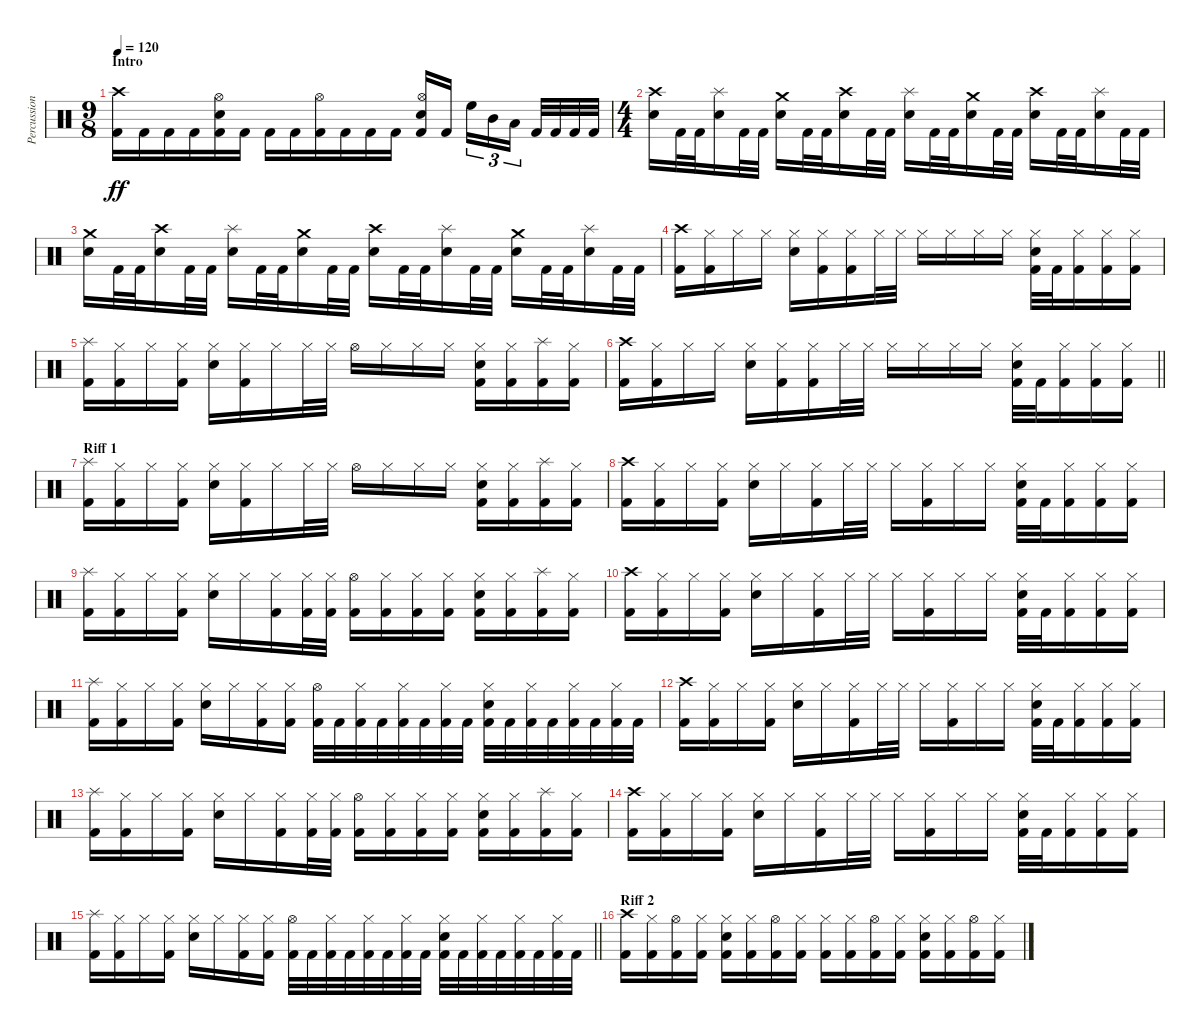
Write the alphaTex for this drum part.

\track ("Percussion" "Percussion") {instrument percussion}
\staff {score}
\articulation defaults
\ts (9 8)
\section ("" "Intro")
\tempo 120
\clef neutral
\ks c
("Crash high (hit)" "Kick (hit) 2").16{dy ff} "Kick (hit) 2".16 "Kick (hit) 2".16 "Kick (hit) 2".16 ("Hi-Hat (open)" "Electric Snare (hit)" "Kick (hit) 2").16 "Kick (hit) 2".16 "Kick (hit) 2".16 "Kick (hit) 2".16 ("Hi-Hat (open)" "Kick (hit) 2").16 "Kick (hit) 2".16 "Kick (hit) 2".16 "Kick (hit) 2".16 ("Hi-Hat (open)" "Electric Snare (hit)" "Kick (hit) 2").16 "Kick (hit) 2".16{beam splitsecondary} "High Floor Tom (hit)".16{tu (3 2)} "Mid Tom (hit)".16{tu (3 2)} "Low Floor Tom (hit)".16{tu (3 2) beam splitsecondary} "Kick (hit) 2".32 "Kick (hit) 2".32 "Kick (hit) 2".32 "Kick (hit) 2".32 |
\ts (4 4)
("Crash high (hit)" "Electric Snare (hit)").16 "Kick (hit) 2".32 "Kick (hit) 2".32 ("Splash (hit)" "Electric Snare (hit)").16 "Kick (hit) 2".32 "Kick (hit) 2".32 ("Crash medium (hit)" "Electric Snare (hit)").16 "Kick (hit) 2".32 "Kick (hit) 2".32 ("Crash high (hit)" "Electric Snare (hit)").16 "Kick (hit) 2".32 "Kick (hit) 2".32 ("Splash (hit)" "Electric Snare (hit)").16 "Kick (hit) 2".32 "Kick (hit) 2".32 ("Crash medium (hit)" "Electric Snare (hit)").16 "Kick (hit) 2".32 "Kick (hit) 2".32 ("Crash high (hit)" "Electric Snare (hit)").16 "Kick (hit) 2".32 "Kick (hit) 2".32 ("Splash (hit)" "Electric Snare (hit)").16 "Kick (hit) 2".32 "Kick (hit) 2".32 |
("Crash medium (hit)" "Electric Snare (hit)").16 "Kick (hit) 2".32 "Kick (hit) 2".32 ("Crash high (hit)" "Electric Snare (hit)").16 "Kick (hit) 2".32 "Kick (hit) 2".32 ("Splash (hit)" "Electric Snare (hit)").16 "Kick (hit) 2".32 "Kick (hit) 2".32 ("Crash medium (hit)" "Electric Snare (hit)").16 "Kick (hit) 2".32 "Kick (hit) 2".32 ("Crash high (hit)" "Electric Snare (hit)").16 "Kick (hit) 2".32 "Kick (hit) 2".32 ("Splash (hit)" "Electric Snare (hit)").16 "Kick (hit) 2".32 "Kick (hit) 2".32 ("Crash medium (hit)" "Electric Snare (hit)").16 "Kick (hit) 2".32 "Kick (hit) 2".32 ("Splash (hit)" "Electric Snare (hit)").16 "Kick (hit) 2".32 "Kick (hit) 2".32 |
("Crash high (hit)" "Kick (hit) 2").16 ("Hi-Hat (closed)" "Kick (hit) 2").16 "Hi-Hat (closed)".16 "Hi-Hat (closed)".16 ("Hi-Hat (closed)" "Electric Snare (hit)").16 ("Hi-Hat (closed)" "Kick (hit) 2").16 ("Hi-Hat (closed)" "Kick (hit) 2").16 "Hi-Hat (closed)".32 "Hi-Hat (closed)".32 "Hi-Hat (closed)".16 "Hi-Hat (closed)".16 "Hi-Hat (closed)".16 "Hi-Hat (closed)".16 ("Hi-Hat (closed)" "Electric Snare (hit)" "Kick (hit) 2").32 "Kick (hit) 2".32 ("Hi-Hat (closed)" "Kick (hit) 2").16 ("Hi-Hat (closed)" "Kick (hit) 2").16 ("Hi-Hat (closed)" "Kick (hit) 2").16 |
("Splash (hit)" "Kick (hit) 2").16 ("Hi-Hat (closed)" "Kick (hit) 2").16 "Hi-Hat (closed)".16 ("Hi-Hat (closed)" "Kick (hit) 2").16 ("Hi-Hat (closed)" "Electric Snare (hit)").16 ("Hi-Hat (closed)" "Kick (hit) 2").16 "Hi-Hat (closed)".16 "Hi-Hat (closed)".32 "Hi-Hat (closed)".32 "Hi-Hat (open)".16 "Hi-Hat (closed)".16 "Hi-Hat (closed)".16 "Hi-Hat (closed)".16 ("Hi-Hat (closed)" "Electric Snare (hit)" "Kick (hit) 2").16 ("Hi-Hat (closed)" "Kick (hit) 2").16 ("Splash (hit)" "Kick (hit) 2").16 ("Hi-Hat (closed)" "Kick (hit) 2").16 |
\barLineRight lightlight
("Crash high (hit)" "Kick (hit) 2").16 ("Hi-Hat (closed)" "Kick (hit) 2").16 "Hi-Hat (closed)".16 "Hi-Hat (closed)".16 ("Hi-Hat (closed)" "Electric Snare (hit)").16 ("Hi-Hat (closed)" "Kick (hit) 2").16 ("Hi-Hat (closed)" "Kick (hit) 2").16 "Hi-Hat (closed)".32 "Hi-Hat (closed)".32 "Hi-Hat (closed)".16 "Hi-Hat (closed)".16 "Hi-Hat (closed)".16 "Hi-Hat (closed)".16 ("Hi-Hat (closed)" "Electric Snare (hit)" "Kick (hit) 2").32 "Kick (hit) 2".32 ("Hi-Hat (closed)" "Kick (hit) 2").16 ("Hi-Hat (closed)" "Kick (hit) 2").16 ("Hi-Hat (closed)" "Kick (hit) 2").16 |
\section ("" "Riff 1")
("Splash (hit)" "Kick (hit) 2").16 ("Hi-Hat (closed)" "Kick (hit) 2").16 "Hi-Hat (closed)".16 ("Hi-Hat (closed)" "Kick (hit) 2").16 ("Hi-Hat (closed)" "Electric Snare (hit)").16 ("Hi-Hat (closed)" "Kick (hit) 2").16 "Hi-Hat (closed)".16 "Hi-Hat (closed)".32 "Hi-Hat (closed)".32 "Hi-Hat (open)".16 "Hi-Hat (closed)".16 "Hi-Hat (closed)".16 "Hi-Hat (closed)".16 ("Hi-Hat (closed)" "Electric Snare (hit)" "Kick (hit) 2").16 ("Hi-Hat (closed)" "Kick (hit) 2").16 ("Splash (hit)" "Kick (hit) 2").16 ("Hi-Hat (closed)" "Kick (hit) 2").16 |
("Crash high (hit)" "Kick (hit) 2").16 ("Hi-Hat (closed)" "Kick (hit) 2").16 "Hi-Hat (closed)".16 ("Hi-Hat (closed)" "Kick (hit) 2").16 ("Hi-Hat (closed)" "Electric Snare (hit)").16 "Hi-Hat (closed)".16 ("Hi-Hat (closed)" "Kick (hit) 2").16 "Hi-Hat (closed)".32 "Hi-Hat (closed)".32 "Hi-Hat (closed)".16 ("Hi-Hat (closed)" "Kick (hit) 2").16 "Hi-Hat (closed)".16 "Hi-Hat (closed)".16 ("Hi-Hat (closed)" "Electric Snare (hit)" "Kick (hit) 2").32 "Kick (hit) 2".32 ("Hi-Hat (closed)" "Kick (hit) 2").16 ("Hi-Hat (closed)" "Kick (hit) 2").16 ("Hi-Hat (closed)" "Kick (hit) 2").16 |
("Splash (hit)" "Kick (hit) 2").16 ("Hi-Hat (closed)" "Kick (hit) 2").16 "Hi-Hat (closed)".16 ("Hi-Hat (closed)" "Kick (hit) 2").16 ("Hi-Hat (closed)" "Electric Snare (hit)").16 "Hi-Hat (closed)".16 ("Hi-Hat (closed)" "Kick (hit) 2").16 ("Hi-Hat (closed)" "Kick (hit) 2").32 ("Hi-Hat (closed)" "Kick (hit) 2").32 ("Hi-Hat (open)" "Kick (hit) 2").16 ("Hi-Hat (closed)" "Kick (hit) 2").16 ("Hi-Hat (closed)" "Kick (hit) 2").16 ("Hi-Hat (closed)" "Kick (hit) 2").16 ("Hi-Hat (closed)" "Electric Snare (hit)" "Kick (hit) 2").16 ("Hi-Hat (closed)" "Kick (hit) 2").16 ("Splash (hit)" "Kick (hit) 2").16 ("Hi-Hat (closed)" "Kick (hit) 2").16 |
("Crash high (hit)" "Kick (hit) 2").16 ("Hi-Hat (closed)" "Kick (hit) 2").16 "Hi-Hat (closed)".16 ("Hi-Hat (closed)" "Kick (hit) 2").16 ("Hi-Hat (closed)" "Electric Snare (hit)").16 "Hi-Hat (closed)".16 ("Hi-Hat (closed)" "Kick (hit) 2").16 "Hi-Hat (closed)".32 "Hi-Hat (closed)".32 "Hi-Hat (closed)".16 ("Hi-Hat (closed)" "Kick (hit) 2").16 "Hi-Hat (closed)".16 "Hi-Hat (closed)".16 ("Hi-Hat (closed)" "Electric Snare (hit)" "Kick (hit) 2").32 "Kick (hit) 2".32 ("Hi-Hat (closed)" "Kick (hit) 2").16 ("Hi-Hat (closed)" "Kick (hit) 2").16 ("Hi-Hat (closed)" "Kick (hit) 2").16 |
("Splash (hit)" "Kick (hit) 2").16 ("Hi-Hat (closed)" "Kick (hit) 2").16 "Hi-Hat (closed)".16 ("Hi-Hat (closed)" "Kick (hit) 2").16 ("Hi-Hat (closed)" "Electric Snare (hit)").16 "Hi-Hat (closed)".16 ("Hi-Hat (closed)" "Kick (hit) 2").16 ("Hi-Hat (closed)" "Kick (hit) 2").16 ("Hi-Hat (open)" "Kick (hit) 2").32 "Kick (hit) 2".32 ("Hi-Hat (closed)" "Kick (hit) 2").32 "Kick (hit) 2".32 ("Hi-Hat (closed)" "Kick (hit) 2").32 "Kick (hit) 2".32 ("Hi-Hat (closed)" "Kick (hit) 2").32 "Kick (hit) 2".32 ("Hi-Hat (closed)" "Electric Snare (hit)" "Kick (hit) 2").32 "Kick (hit) 2".32 ("Hi-Hat (closed)" "Kick (hit) 2").32 "Kick (hit) 2".32 ("Hi-Hat (closed)" "Kick (hit) 2").32 "Kick (hit) 2".32 ("Hi-Hat (closed)" "Kick (hit) 2").32 "Kick (hit) 2".32 |
("Crash high (hit)" "Kick (hit) 2").16 ("Hi-Hat (closed)" "Kick (hit) 2").16 "Hi-Hat (closed)".16 ("Hi-Hat (closed)" "Kick (hit) 2").16 ("Hi-Hat (closed)" "Electric Snare (hit)").16 "Hi-Hat (closed)".16 ("Hi-Hat (closed)" "Kick (hit) 2").16 "Hi-Hat (closed)".32 "Hi-Hat (closed)".32 "Hi-Hat (closed)".16 ("Hi-Hat (closed)" "Kick (hit) 2").16 "Hi-Hat (closed)".16 "Hi-Hat (closed)".16 ("Hi-Hat (closed)" "Electric Snare (hit)" "Kick (hit) 2").32 "Kick (hit) 2".32 ("Hi-Hat (closed)" "Kick (hit) 2").16 ("Hi-Hat (closed)" "Kick (hit) 2").16 ("Hi-Hat (closed)" "Kick (hit) 2").16 |
("Splash (hit)" "Kick (hit) 2").16 ("Hi-Hat (closed)" "Kick (hit) 2").16 "Hi-Hat (closed)".16 ("Hi-Hat (closed)" "Kick (hit) 2").16 ("Hi-Hat (closed)" "Electric Snare (hit)").16 "Hi-Hat (closed)".16 ("Hi-Hat (closed)" "Kick (hit) 2").16 ("Hi-Hat (closed)" "Kick (hit) 2").32 ("Hi-Hat (closed)" "Kick (hit) 2").32 ("Hi-Hat (open)" "Kick (hit) 2").16 ("Hi-Hat (closed)" "Kick (hit) 2").16 ("Hi-Hat (closed)" "Kick (hit) 2").16 ("Hi-Hat (closed)" "Kick (hit) 2").16 ("Hi-Hat (closed)" "Electric Snare (hit)" "Kick (hit) 2").16 ("Hi-Hat (closed)" "Kick (hit) 2").16 ("Splash (hit)" "Kick (hit) 2").16 ("Hi-Hat (closed)" "Kick (hit) 2").16 |
("Crash high (hit)" "Kick (hit) 2").16 ("Hi-Hat (closed)" "Kick (hit) 2").16 "Hi-Hat (closed)".16 ("Hi-Hat (closed)" "Kick (hit) 2").16 ("Hi-Hat (closed)" "Electric Snare (hit)").16 "Hi-Hat (closed)".16 ("Hi-Hat (closed)" "Kick (hit) 2").16 "Hi-Hat (closed)".32 "Hi-Hat (closed)".32 "Hi-Hat (closed)".16 ("Hi-Hat (closed)" "Kick (hit) 2").16 "Hi-Hat (closed)".16 "Hi-Hat (closed)".16 ("Hi-Hat (closed)" "Electric Snare (hit)" "Kick (hit) 2").32 "Kick (hit) 2".32 ("Hi-Hat (closed)" "Kick (hit) 2").16 ("Hi-Hat (closed)" "Kick (hit) 2").16 ("Hi-Hat (closed)" "Kick (hit) 2").16 |
\barLineRight lightlight
("Splash (hit)" "Kick (hit) 2").16 ("Hi-Hat (closed)" "Kick (hit) 2").16 "Hi-Hat (closed)".16 ("Hi-Hat (closed)" "Kick (hit) 2").16 ("Hi-Hat (closed)" "Electric Snare (hit)").16 "Hi-Hat (closed)".16 ("Hi-Hat (closed)" "Kick (hit) 2").16 ("Hi-Hat (closed)" "Kick (hit) 2").16 ("Hi-Hat (open)" "Kick (hit) 2").32 "Kick (hit) 2".32 ("Hi-Hat (closed)" "Kick (hit) 2").32 "Kick (hit) 2".32 ("Hi-Hat (closed)" "Kick (hit) 2").32 "Kick (hit) 2".32 ("Hi-Hat (closed)" "Kick (hit) 2").32 "Kick (hit) 2".32 ("Hi-Hat (closed)" "Electric Snare (hit)" "Kick (hit) 2").32 "Kick (hit) 2".32 ("Hi-Hat (closed)" "Kick (hit) 2").32 "Kick (hit) 2".32 ("Hi-Hat (closed)" "Kick (hit) 2").32 "Kick (hit) 2".32 ("Hi-Hat (closed)" "Kick (hit) 2").32 "Kick (hit) 2".32 |
\section ("" "Riff 2")
("Crash high (hit)" "Kick (hit) 2").16 ("Hi-Hat (closed)" "Kick (hit) 2").16 ("Hi-Hat (open)" "Kick (hit) 2").16 ("Hi-Hat (closed)" "Kick (hit) 2").16 ("Hi-Hat (closed)" "Electric Snare (hit)" "Kick (hit) 2").16 ("Hi-Hat (closed)" "Kick (hit) 2").16 ("Hi-Hat (open)" "Kick (hit) 2").16 ("Hi-Hat (closed)" "Kick (hit) 2").16 ("Hi-Hat (closed)" "Kick (hit) 2").16 ("Hi-Hat (closed)" "Kick (hit) 2").16 ("Hi-Hat (open)" "Kick (hit) 2").16 ("Hi-Hat (closed)" "Kick (hit) 2").16 ("Hi-Hat (closed)" "Electric Snare (hit)" "Kick (hit) 2").16 ("Hi-Hat (closed)" "Kick (hit) 2").16 ("Hi-Hat (open)" "Kick (hit) 2").16 ("Hi-Hat (closed)" "Kick (hit) 2").16
